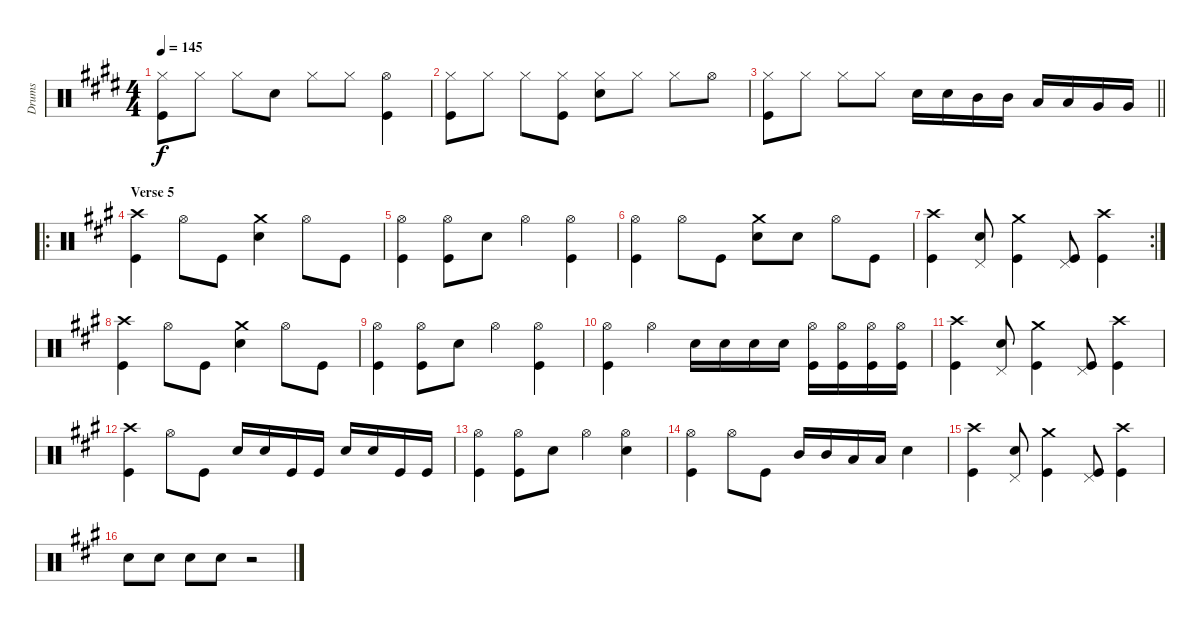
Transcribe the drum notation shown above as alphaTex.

\track ("Drums" "Drums") {instrument percussion}
\staff {score}
\articulation defaults
\ts (4 4)
\tempo 145
\clef neutral
\ks c#minor
("Hi-Hat (closed)" "Kick (hit)").8{dy f} "Hi-Hat (closed)".8 "Hi-Hat (closed)".8 "Snare (hit) 2".8 "Hi-Hat (closed)".8 "Hi-Hat (closed)".8 ("Hi-Hat (open)" "Kick (hit)").4 |
("Hi-Hat (closed)" "Kick (hit)").8 "Hi-Hat (closed)".8 "Hi-Hat (closed)".8 ("Hi-Hat (closed)" "Kick (hit)").8 ("Hi-Hat (closed)" "Snare (hit) 2").8 "Hi-Hat (closed)".8 "Hi-Hat (closed)".8 "Hi-Hat (open)".8 |
\barLineRight lightlight
("Hi-Hat (closed)" "Kick (hit)").8 "Hi-Hat (closed)".8 "Hi-Hat (closed)".8 "Hi-Hat (closed)".8 "Snare (hit) 2".16 "Snare (hit) 2".16 "Mid Tom (hit)".16 "Mid Tom (hit)".16 "Low Tom (hit)".16 "Low Tom (hit)".16 "Very Low Tom (hit)".16 "Very Low Tom (hit)".16 |
\ro
\section ("" "Verse 5")
\ks a
("Crash high (hit)" "Kick (hit)").4 "Hi-Hat (open)".8 "Kick (hit)".8 ("Crash medium (hit)" "Snare (hit) 2").4 "Hi-Hat (open)".8 "Kick (hit)".8 |
("Hi-Hat (open)" "Kick (hit)").4 ("Hi-Hat (open)" "Kick (hit)").8 "Snare (hit) 2".8 "Hi-Hat (open)".4 ("Hi-Hat (open)" "Kick (hit)").4 |
("Hi-Hat (open)" "Kick (hit)").4 "Hi-Hat (open)".8 "Kick (hit)".8 ("Crash medium (hit)" "Snare (hit) 2").8 "Snare (hit) 2".8 "Hi-Hat (open)".8 "Kick (hit)".8 |
\rc 2
("Crash high (hit)" "Kick (hit)").4 ("Pedal Hi-Hat (hit)" "Snare (hit) 2").8 ("Crash medium (hit)" "Kick (hit)").4 ("Pedal Hi-Hat (hit)" "Kick (hit)").8 ("Crash high (hit)" "Kick (hit)").4 |
("Crash high (hit)" "Kick (hit)").4 "Hi-Hat (open)".8 "Kick (hit)".8 ("Crash medium (hit)" "Snare (hit) 2").4 "Hi-Hat (open)".8 "Kick (hit)".8 |
("Hi-Hat (open)" "Kick (hit)").4 ("Hi-Hat (open)" "Kick (hit)").8 "Snare (hit) 2".8 "Hi-Hat (open)".4 ("Hi-Hat (open)" "Kick (hit)").4 |
("Hi-Hat (open)" "Kick (hit)").4 "Hi-Hat (open)".4 "Snare (hit) 2".16 "Snare (hit) 2".16 "Snare (hit) 2".16 "Snare (hit) 2".16 ("Hi-Hat (open)" "Kick (hit)").16 ("Hi-Hat (open)" "Kick (hit)").16 ("Hi-Hat (open)" "Kick (hit)").16 ("Hi-Hat (open)" "Kick (hit)").16 |
("Crash high (hit)" "Kick (hit)").4 ("Pedal Hi-Hat (hit)" "Snare (hit) 2").8 ("Crash medium (hit)" "Kick (hit)").4 ("Pedal Hi-Hat (hit)" "Kick (hit)").8 ("Crash high (hit)" "Kick (hit)").4 |
("Crash high (hit)" "Kick (hit)").4 "Hi-Hat (open)".8 "Kick (hit)".8 "Snare (hit) 2".16 "Snare (hit) 2".16 "Kick (hit)".16 "Kick (hit)".16 "Snare (hit) 2".16 "Snare (hit) 2".16 "Kick (hit)".16 "Kick (hit)".16 |
("Hi-Hat (open)" "Kick (hit)").4 ("Hi-Hat (open)" "Kick (hit)").8 "Snare (hit) 2".8 "Hi-Hat (open)".4 ("Hi-Hat (open)" "Snare (hit) 2").4 |
("Hi-Hat (open)" "Kick (hit)").4 "Hi-Hat (open)".8 "Kick (hit)".8 "Mid Tom (hit)".16 "Mid Tom (hit)".16 "Low Tom (hit)".16 "Low Tom (hit)".16 "Snare (hit) 2".4 |
("Crash high (hit)" "Kick (hit)").4 ("Pedal Hi-Hat (hit)" "Snare (hit) 2").8 ("Crash medium (hit)" "Kick (hit)").4 ("Pedal Hi-Hat (hit)" "Kick (hit)").8 ("Crash high (hit)" "Kick (hit)").4 |
"Snare (hit) 2".8 "Snare (hit) 2".8 "Snare (hit) 2".8 "Snare (hit) 2".8 r.2
